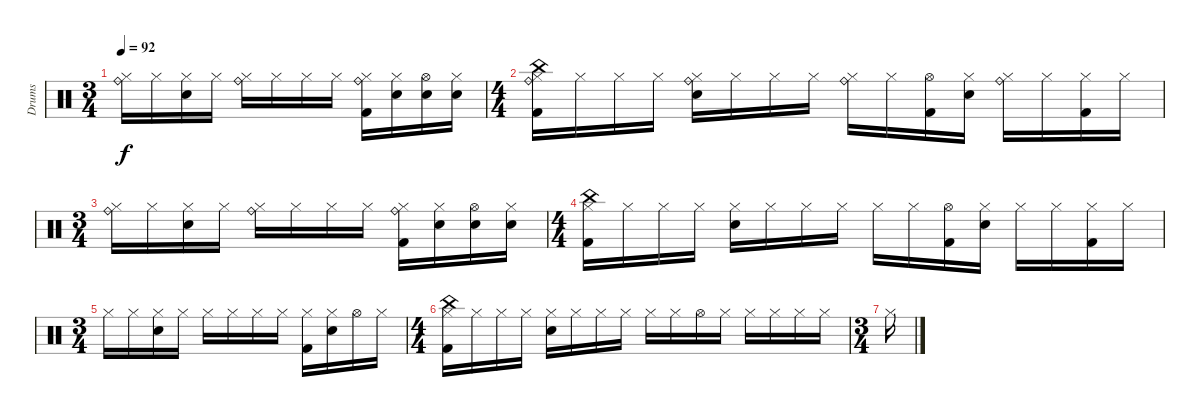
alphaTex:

\track ("Drums" "Drums") {instrument percussion}
\staff {score}
\articulation defaults
\ts (3 4)
\tempo 92
\clef neutral
\ks c
("Ride (bell)" "Hi-Hat (closed)").16{dy f} "Hi-Hat (closed)".16 ("Hi-Hat (closed)" "Snare (hit) 2").16 "Hi-Hat (closed)".16 ("Ride (bell)" "Hi-Hat (closed)").16 "Hi-Hat (closed)".16 "Hi-Hat (closed)".16 "Hi-Hat (closed)".16 ("Ride (bell)" "Hi-Hat (closed)" "Kick (hit) 2").16 ("Hi-Hat (closed)" "Snare (hit) 2").16 ("Hi-Hat (open)" "Snare (hit) 2").16 ("Hi-Hat (closed)" "Snare (hit) 2").16 |
\ts (4 4)
("Ride (bell)" "China (hit)" "Hi-Hat (closed)" "Kick (hit) 2").16 "Hi-Hat (closed)".16 "Hi-Hat (closed)".16 "Hi-Hat (closed)".16 ("Ride (bell)" "Hi-Hat (closed)" "Snare (hit) 2").16 "Hi-Hat (closed)".16 "Hi-Hat (closed)".16 "Hi-Hat (closed)".16 ("Ride (bell)" "Hi-Hat (closed)").16 "Hi-Hat (closed)".16 ("Hi-Hat (open)" "Kick (hit) 2").16 ("Hi-Hat (closed)" "Snare (hit) 2").16 ("Ride (bell)" "Hi-Hat (closed)").16 "Hi-Hat (closed)".16 ("Hi-Hat (closed)" "Kick (hit) 2").16 "Hi-Hat (closed)".16 |
\ts (3 4)
("Ride (bell)" "Hi-Hat (closed)").16 "Hi-Hat (closed)".16 ("Hi-Hat (closed)" "Snare (hit) 2").16 "Hi-Hat (closed)".16 ("Ride (bell)" "Hi-Hat (closed)").16 "Hi-Hat (closed)".16 "Hi-Hat (closed)".16 "Hi-Hat (closed)".16 ("Ride (bell)" "Hi-Hat (closed)" "Kick (hit) 2").16 ("Hi-Hat (closed)" "Snare (hit) 2").16 ("Hi-Hat (open)" "Snare (hit) 2").16 ("Hi-Hat (closed)" "Snare (hit) 2").16 |
\ts (4 4)
("China (hit)" "Hi-Hat (closed)" "Kick (hit) 2").16 "Hi-Hat (closed)".16 "Hi-Hat (closed)".16 "Hi-Hat (closed)".16 ("Hi-Hat (closed)" "Snare (hit) 2").16 "Hi-Hat (closed)".16 "Hi-Hat (closed)".16 "Hi-Hat (closed)".16 "Hi-Hat (closed)".16 "Hi-Hat (closed)".16 ("Hi-Hat (open)" "Kick (hit) 2").16 ("Hi-Hat (closed)" "Snare (hit) 2").16 "Hi-Hat (closed)".16 "Hi-Hat (closed)".16 ("Hi-Hat (closed)" "Kick (hit) 2").16 "Hi-Hat (closed)".16 |
\ts (3 4)
"Hi-Hat (closed)".16 "Hi-Hat (closed)".16 ("Hi-Hat (closed)" "Snare (hit) 2").16 "Hi-Hat (closed)".16 "Hi-Hat (closed)".16 "Hi-Hat (closed)".16 "Hi-Hat (closed)".16 "Hi-Hat (closed)".16 ("Hi-Hat (closed)" "Kick (hit) 2").16 ("Hi-Hat (closed)" "Snare (hit) 2").16 "Hi-Hat (open)".16 "Hi-Hat (closed)".16 |
\ts (4 4)
("China (hit)" "Hi-Hat (closed)" "Kick (hit) 2").16 "Hi-Hat (closed)".16 "Hi-Hat (closed)".16 "Hi-Hat (closed)".16 ("Hi-Hat (closed)" "Snare (hit) 2").16 "Hi-Hat (closed)".16 "Hi-Hat (closed)".16 "Hi-Hat (closed)".16 "Hi-Hat (closed)".16 "Hi-Hat (closed)".16 "Hi-Hat (open)".16 "Hi-Hat (closed)".16 "Hi-Hat (closed)".16 "Hi-Hat (closed)".16 "Hi-Hat (closed)".16 "Hi-Hat (closed)".16 |
\ts (3 4)
"Hi-Hat (closed)".16
